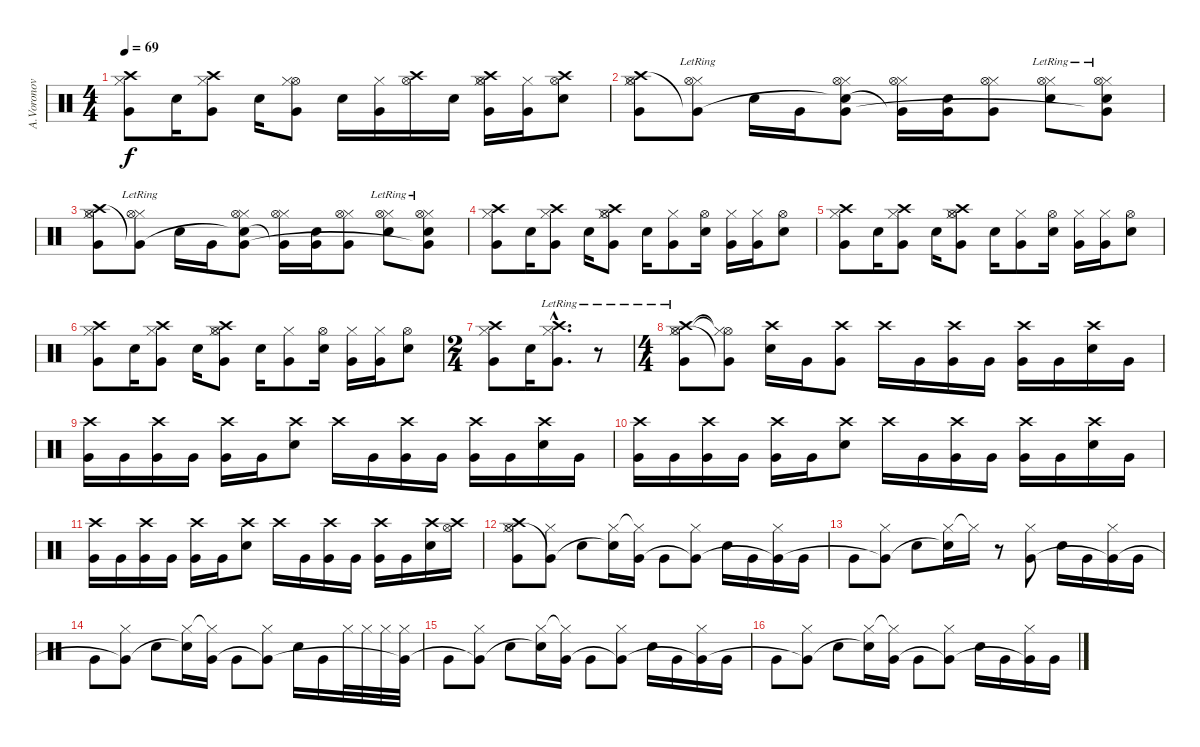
\track ("A.Voronov - Drumzzz" "A.Voronov ") {instrument percussion}
\staff {score}
\articulation defaults
\ts (4 4)
\tempo 69
\clef neutral
\ks c
("Crash high (hit)" "Hi-Hat (closed)" "Very Low Tom (hit)").8{dy f} "Electric Snare (hit)".16 ("Crash high (hit)" "Hi-Hat (closed)" "Very Low Tom (hit)").8 "Electric Snare (hit)".16 ("Hi-Hat (open)" "Hi-Hat (closed)" "Very Low Tom (hit)").8 "Electric Snare (hit)".16 ("Hi-Hat (closed)" "Very Low Tom (hit)").16 ("Crash high (hit)" "Hi-Hat (open)").16 "Electric Snare (hit)".16 ("Crash high (hit)" "Hi-Hat (open)" "Hi-Hat (closed)" "Very Low Tom (hit)").16 ("Hi-Hat (closed)" "Very Low Tom (hit)").16 ("Crash high (hit)" "Hi-Hat (open)" "Electric Snare (hit)").8 |
("Hi-Hat (open)" "Hi-Hat (closed)" "Crash high (hit)" "Very Low Tom (hit)").8 ("Hi-Hat (closed)"{lr} "Hi-Hat (open)"{lr} "Very Low Tom (hit)"{t}).8 "Electric Snare (hit)".16 "Very Low Tom (hit)".16 ("Hi-Hat (closed)" "Hi-Hat (open)" "Electric Snare (hit)"{t} "Very Low Tom (hit)").8 ("Hi-Hat (closed)" "Hi-Hat (open)" "Very Low Tom (hit)"{t}).16 ("Electric Snare (hit)" "Very Low Tom (hit)").16 ("Hi-Hat (closed)" "Hi-Hat (open)" "Very Low Tom (hit)").8 ("Hi-Hat (closed)"{lr} "Hi-Hat (open)"{lr} "Electric Snare (hit)").8 ("Hi-Hat (closed)"{lr} "Hi-Hat (open)"{lr} "Electric Snare (hit)" "Very Low Tom (hit)"{t}).8 |
("Hi-Hat (open)" "Hi-Hat (closed)" "Crash high (hit)" "Very Low Tom (hit)").8 ("Hi-Hat (closed)"{lr} "Hi-Hat (open)"{lr} "Very Low Tom (hit)"{t}).8 "Electric Snare (hit)".16 "Very Low Tom (hit)".16 ("Hi-Hat (closed)" "Hi-Hat (open)" "Electric Snare (hit)"{t} "Very Low Tom (hit)").8 ("Hi-Hat (closed)" "Hi-Hat (open)" "Very Low Tom (hit)"{t}).16 ("Electric Snare (hit)" "Very Low Tom (hit)").16 ("Hi-Hat (closed)" "Hi-Hat (open)" "Very Low Tom (hit)").8 ("Hi-Hat (closed)"{lr} "Hi-Hat (open)"{lr} "Electric Snare (hit)").8 ("Hi-Hat (closed)"{lr} "Hi-Hat (open)"{lr} "Electric Snare (hit)" "Very Low Tom (hit)"{t}).8 |
("Crash high (hit)" "Hi-Hat (closed)" "Very Low Tom (hit)").8 "Electric Snare (hit)".16 ("Crash high (hit)" "Hi-Hat (closed)" "Very Low Tom (hit)").8 "Electric Snare (hit)".16 ("Crash high (hit)" "Hi-Hat (open)" "Hi-Hat (closed)" "Very Low Tom (hit)").8 "Electric Snare (hit)".16 ("Hi-Hat (closed)" "Very Low Tom (hit)").8 ("Hi-Hat (open)" "Electric Snare (hit)").16 ("Hi-Hat (closed)" "Very Low Tom (hit)").16 ("Hi-Hat (closed)" "Very Low Tom (hit)").16 ("Hi-Hat (open)" "Electric Snare (hit)").8 |
("Crash high (hit)" "Hi-Hat (closed)" "Very Low Tom (hit)").8 "Electric Snare (hit)".16 ("Crash high (hit)" "Hi-Hat (closed)" "Very Low Tom (hit)").8 "Electric Snare (hit)".16 ("Crash high (hit)" "Hi-Hat (open)" "Hi-Hat (closed)" "Very Low Tom (hit)").8 "Electric Snare (hit)".16 ("Hi-Hat (closed)" "Very Low Tom (hit)").8 ("Hi-Hat (open)" "Electric Snare (hit)").16 ("Hi-Hat (closed)" "Very Low Tom (hit)").16 ("Hi-Hat (closed)" "Very Low Tom (hit)").16 ("Hi-Hat (open)" "Electric Snare (hit)").8 |
("Crash high (hit)" "Hi-Hat (closed)" "Very Low Tom (hit)").8 "Electric Snare (hit)".16 ("Crash high (hit)" "Hi-Hat (closed)" "Very Low Tom (hit)").8 "Electric Snare (hit)".16 ("Crash high (hit)" "Hi-Hat (open)" "Hi-Hat (closed)" "Very Low Tom (hit)").8 "Electric Snare (hit)".16 ("Hi-Hat (closed)" "Very Low Tom (hit)").8 ("Hi-Hat (open)" "Electric Snare (hit)").16 ("Hi-Hat (closed)" "Very Low Tom (hit)").16 ("Hi-Hat (closed)" "Very Low Tom (hit)").16 ("Hi-Hat (open)" "Electric Snare (hit)").8 |
\ts (2 4)
("Crash high (hit)" "Hi-Hat (closed)" "Very Low Tom (hit)").8 "Electric Snare (hit)".16 ("Crash high (hit)"{hac lr} "Hi-Hat (closed)"{hac lr} "Very Low Tom (hit)"{hac lr}).8{d} r.8 |
\ts (4 4)
("Crash high (hit)"{lr} "Hi-Hat (open)" "Hi-Hat (closed)" "Very Low Tom (hit)").8 ("Hi-Hat (open)"{t} "Hi-Hat (closed)"{t} "Very Low Tom (hit)"{t}).8 ("Crash high (hit)" "Electric Snare (hit)").16 "Very Low Tom (hit)".16 ("Crash high (hit)" "Very Low Tom (hit)").8 "Crash high (hit)".16 "Very Low Tom (hit)".16 ("Crash high (hit)" "Very Low Tom (hit)").16 "Very Low Tom (hit)".16 ("Crash high (hit)" "Very Low Tom (hit)").16 "Very Low Tom (hit)".16 ("Crash high (hit)" "Electric Snare (hit)").16 "Very Low Tom (hit)".16 |
("Crash high (hit)" "Very Low Tom (hit)").16 "Very Low Tom (hit)".16 ("Crash high (hit)" "Very Low Tom (hit)").16 "Very Low Tom (hit)".16 ("Crash high (hit)" "Very Low Tom (hit)").16 "Very Low Tom (hit)".16 ("Crash high (hit)" "Electric Snare (hit)").8 "Crash high (hit)".16 "Very Low Tom (hit)".16 ("Crash high (hit)" "Very Low Tom (hit)").16 "Very Low Tom (hit)".16 ("Crash high (hit)" "Very Low Tom (hit)").16 "Very Low Tom (hit)".16 ("Crash high (hit)" "Electric Snare (hit)").16 "Very Low Tom (hit)".16 |
("Crash high (hit)" "Very Low Tom (hit)").16 "Very Low Tom (hit)".16 ("Crash high (hit)" "Very Low Tom (hit)").16 "Very Low Tom (hit)".16 ("Crash high (hit)" "Very Low Tom (hit)").16 "Very Low Tom (hit)".16 ("Crash high (hit)" "Electric Snare (hit)").8 "Crash high (hit)".16 "Very Low Tom (hit)".16 ("Crash high (hit)" "Very Low Tom (hit)").16 "Very Low Tom (hit)".16 ("Crash high (hit)" "Very Low Tom (hit)").16 "Very Low Tom (hit)".16 ("Crash high (hit)" "Electric Snare (hit)").16 "Very Low Tom (hit)".16 |
("Crash high (hit)" "Very Low Tom (hit)").16 "Very Low Tom (hit)".16 ("Crash high (hit)" "Very Low Tom (hit)").16 "Very Low Tom (hit)".16 ("Crash high (hit)" "Very Low Tom (hit)").16 "Very Low Tom (hit)".16 ("Crash high (hit)" "Electric Snare (hit)").8 "Crash high (hit)".16 "Very Low Tom (hit)".16 ("Crash high (hit)" "Very Low Tom (hit)").16 "Very Low Tom (hit)".16 ("Crash high (hit)" "Very Low Tom (hit)").16 "Very Low Tom (hit)".16 ("Crash high (hit)" "Electric Snare (hit)").16 ("Crash high (hit)" "Hi-Hat (open)").16 |
("Hi-Hat (open)" "Hi-Hat (closed)" "Crash high (hit)" "Very Low Tom (hit)").8 ("Hi-Hat (closed)" "Very Low Tom (hit)"{t}).8 "Electric Snare (hit)".8 ("Hi-Hat (closed)" "Electric Snare (hit)"{t}).16 ("Hi-Hat (closed)"{t} "Very Low Tom (hit)").16 "Very Low Tom (hit)".8 ("Hi-Hat (closed)" "Very Low Tom (hit)"{t}).8 "Electric Snare (hit)".16 "Very Low Tom (hit)".16 ("Hi-Hat (closed)" "Very Low Tom (hit)"{t}).16 "Very Low Tom (hit)".16 |
"Very Low Tom (hit)".8 ("Hi-Hat (closed)" "Very Low Tom (hit)"{t}).8 "Electric Snare (hit)".8 ("Hi-Hat (closed)" "Electric Snare (hit)"{t}).16 "Hi-Hat (closed)"{t}.16 r.8 ("Hi-Hat (closed)" "Very Low Tom (hit)").8 "Electric Snare (hit)".16 "Very Low Tom (hit)".16 ("Hi-Hat (closed)" "Very Low Tom (hit)"{t}).16 "Very Low Tom (hit)".16 |
"Very Low Tom (hit)".8 ("Hi-Hat (closed)" "Very Low Tom (hit)"{t}).8 "Electric Snare (hit)".8 ("Hi-Hat (closed)" "Electric Snare (hit)"{t}).16 ("Hi-Hat (closed)"{t} "Very Low Tom (hit)").16 "Very Low Tom (hit)".8 ("Hi-Hat (closed)" "Very Low Tom (hit)"{t}).8 "Electric Snare (hit)".16 "Very Low Tom (hit)".16 "Hi-Hat (closed)".32 "Hi-Hat (closed)".32 "Hi-Hat (closed)".32 ("Hi-Hat (closed)" "Very Low Tom (hit)"{t}).32 |
"Very Low Tom (hit)".8 ("Hi-Hat (closed)" "Very Low Tom (hit)"{t}).8 "Electric Snare (hit)".8 ("Hi-Hat (closed)" "Electric Snare (hit)"{t}).16 ("Hi-Hat (closed)"{t} "Very Low Tom (hit)").16 "Very Low Tom (hit)".8 ("Hi-Hat (closed)" "Very Low Tom (hit)"{t}).8 "Electric Snare (hit)".16 "Very Low Tom (hit)".16 ("Hi-Hat (closed)" "Very Low Tom (hit)"{t}).16 "Very Low Tom (hit)".16 |
"Very Low Tom (hit)".8 ("Hi-Hat (closed)" "Very Low Tom (hit)"{t}).8 "Electric Snare (hit)".8 ("Hi-Hat (closed)" "Electric Snare (hit)"{t}).16 ("Hi-Hat (closed)"{t} "Very Low Tom (hit)").16 "Very Low Tom (hit)".8 ("Hi-Hat (closed)" "Very Low Tom (hit)"{t}).8 "Electric Snare (hit)".16 "Very Low Tom (hit)".16 ("Hi-Hat (closed)" "Very Low Tom (hit)"{t}).16 "Very Low Tom (hit)".16
